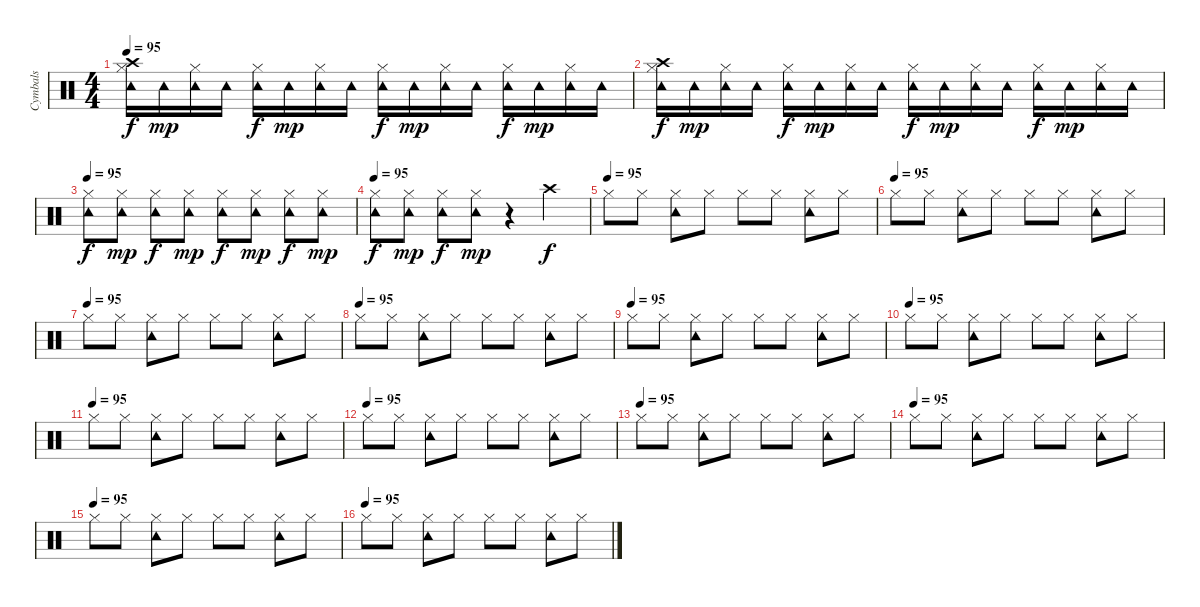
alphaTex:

\track ("Cymbals" "Cymbals") {instrument percussion}
\staff {score}
\articulation defaults
\ts (4 4)
\tempo 95
\clef neutral
\ks c
("Crash high (hit)" "Tambourine (hit)" "Hi-Hat (closed)").16{dy f} "Tambourine (hit)".16{dy mp} ("Tambourine (hit)" "Hi-Hat (closed)").16 "Tambourine (hit)".16 ("Tambourine (hit)" "Hi-Hat (closed)").16{dy f} "Tambourine (hit)".16{dy mp} ("Tambourine (hit)" "Hi-Hat (closed)").16 "Tambourine (hit)".16 ("Tambourine (hit)" "Hi-Hat (closed)").16{dy f} "Tambourine (hit)".16{dy mp} ("Tambourine (hit)" "Hi-Hat (closed)").16 "Tambourine (hit)".16 ("Tambourine (hit)" "Hi-Hat (closed)").16{dy f} "Tambourine (hit)".16{dy mp} ("Tambourine (hit)" "Hi-Hat (closed)").16 "Tambourine (hit)".16 |
("Crash high (hit)" "Tambourine (hit)" "Hi-Hat (closed)").16{dy f} "Tambourine (hit)".16{dy mp} ("Tambourine (hit)" "Hi-Hat (closed)").16 "Tambourine (hit)".16 ("Tambourine (hit)" "Hi-Hat (closed)").16{dy f} "Tambourine (hit)".16{dy mp} ("Tambourine (hit)" "Hi-Hat (closed)").16 "Tambourine (hit)".16 ("Tambourine (hit)" "Hi-Hat (closed)").16{dy f} "Tambourine (hit)".16{dy mp} ("Tambourine (hit)" "Hi-Hat (closed)").16 "Tambourine (hit)".16 ("Tambourine (hit)" "Hi-Hat (closed)").16{dy f} "Tambourine (hit)".16{dy mp} ("Tambourine (hit)" "Hi-Hat (closed)").16 "Tambourine (hit)".16 |
\tempo 95
("Tambourine (hit)" "Hi-Hat (closed)").8{dy f} ("Tambourine (hit)" "Hi-Hat (closed)").8{dy mp} ("Tambourine (hit)" "Hi-Hat (closed)").8{dy f} ("Tambourine (hit)" "Hi-Hat (closed)").8{dy mp} ("Tambourine (hit)" "Hi-Hat (closed)").8{dy f} ("Tambourine (hit)" "Hi-Hat (closed)").8{dy mp} ("Tambourine (hit)" "Hi-Hat (closed)").8{dy f} ("Tambourine (hit)" "Hi-Hat (closed)").8{dy mp} |
\tempo 95
("Tambourine (hit)" "Hi-Hat (closed)").8{dy f} ("Tambourine (hit)" "Hi-Hat (closed)").8{dy mp} ("Tambourine (hit)" "Hi-Hat (closed)").8{dy f} ("Tambourine (hit)" "Hi-Hat (closed)").8{dy mp} r.4 "Crash high (hit)".4{dy f} |
\tempo (95)
"Hi-Hat (closed)".8 "Hi-Hat (closed)".8 ("Tambourine (hit)" "Hi-Hat (closed)").8 "Hi-Hat (closed)".8 "Hi-Hat (closed)".8 "Hi-Hat (closed)".8 ("Tambourine (hit)" "Hi-Hat (closed)").8 "Hi-Hat (closed)".8 |
\tempo (95)
"Hi-Hat (closed)".8 "Hi-Hat (closed)".8 ("Tambourine (hit)" "Hi-Hat (closed)").8 "Hi-Hat (closed)".8 "Hi-Hat (closed)".8 "Hi-Hat (closed)".8 ("Tambourine (hit)" "Hi-Hat (closed)").8 "Hi-Hat (closed)".8 |
\tempo (95)
"Hi-Hat (closed)".8 "Hi-Hat (closed)".8 ("Tambourine (hit)" "Hi-Hat (closed)").8 "Hi-Hat (closed)".8 "Hi-Hat (closed)".8 "Hi-Hat (closed)".8 ("Tambourine (hit)" "Hi-Hat (closed)").8 "Hi-Hat (closed)".8 |
\tempo (95)
"Hi-Hat (closed)".8 "Hi-Hat (closed)".8 ("Tambourine (hit)" "Hi-Hat (closed)").8 "Hi-Hat (closed)".8 "Hi-Hat (closed)".8 "Hi-Hat (closed)".8 ("Tambourine (hit)" "Hi-Hat (closed)").8 "Hi-Hat (closed)".8 |
\tempo (95)
"Hi-Hat (closed)".8 "Hi-Hat (closed)".8 ("Tambourine (hit)" "Hi-Hat (closed)").8 "Hi-Hat (closed)".8 "Hi-Hat (closed)".8 "Hi-Hat (closed)".8 ("Tambourine (hit)" "Hi-Hat (closed)").8 "Hi-Hat (closed)".8 |
\tempo (95)
"Hi-Hat (closed)".8 "Hi-Hat (closed)".8 ("Tambourine (hit)" "Hi-Hat (closed)").8 "Hi-Hat (closed)".8 "Hi-Hat (closed)".8 "Hi-Hat (closed)".8 ("Tambourine (hit)" "Hi-Hat (closed)").8 "Hi-Hat (closed)".8 |
\tempo (95)
"Hi-Hat (closed)".8 "Hi-Hat (closed)".8 ("Tambourine (hit)" "Hi-Hat (closed)").8 "Hi-Hat (closed)".8 "Hi-Hat (closed)".8 "Hi-Hat (closed)".8 ("Tambourine (hit)" "Hi-Hat (closed)").8 "Hi-Hat (closed)".8 |
\tempo (95)
"Hi-Hat (closed)".8 "Hi-Hat (closed)".8 ("Tambourine (hit)" "Hi-Hat (closed)").8 "Hi-Hat (closed)".8 "Hi-Hat (closed)".8 "Hi-Hat (closed)".8 ("Tambourine (hit)" "Hi-Hat (closed)").8 "Hi-Hat (closed)".8 |
\tempo (95)
"Hi-Hat (closed)".8 "Hi-Hat (closed)".8 ("Tambourine (hit)" "Hi-Hat (closed)").8 "Hi-Hat (closed)".8 "Hi-Hat (closed)".8 "Hi-Hat (closed)".8 ("Tambourine (hit)" "Hi-Hat (closed)").8 "Hi-Hat (closed)".8 |
\tempo (95)
"Hi-Hat (closed)".8 "Hi-Hat (closed)".8 ("Tambourine (hit)" "Hi-Hat (closed)").8 "Hi-Hat (closed)".8 "Hi-Hat (closed)".8 "Hi-Hat (closed)".8 ("Tambourine (hit)" "Hi-Hat (closed)").8 "Hi-Hat (closed)".8 |
\tempo (95)
"Hi-Hat (closed)".8 "Hi-Hat (closed)".8 ("Tambourine (hit)" "Hi-Hat (closed)").8 "Hi-Hat (closed)".8 "Hi-Hat (closed)".8 "Hi-Hat (closed)".8 ("Tambourine (hit)" "Hi-Hat (closed)").8 "Hi-Hat (closed)".8 |
\tempo (95)
"Hi-Hat (closed)".8 "Hi-Hat (closed)".8 ("Tambourine (hit)" "Hi-Hat (closed)").8 "Hi-Hat (closed)".8 "Hi-Hat (closed)".8 "Hi-Hat (closed)".8 ("Tambourine (hit)" "Hi-Hat (closed)").8 "Hi-Hat (closed)".8
